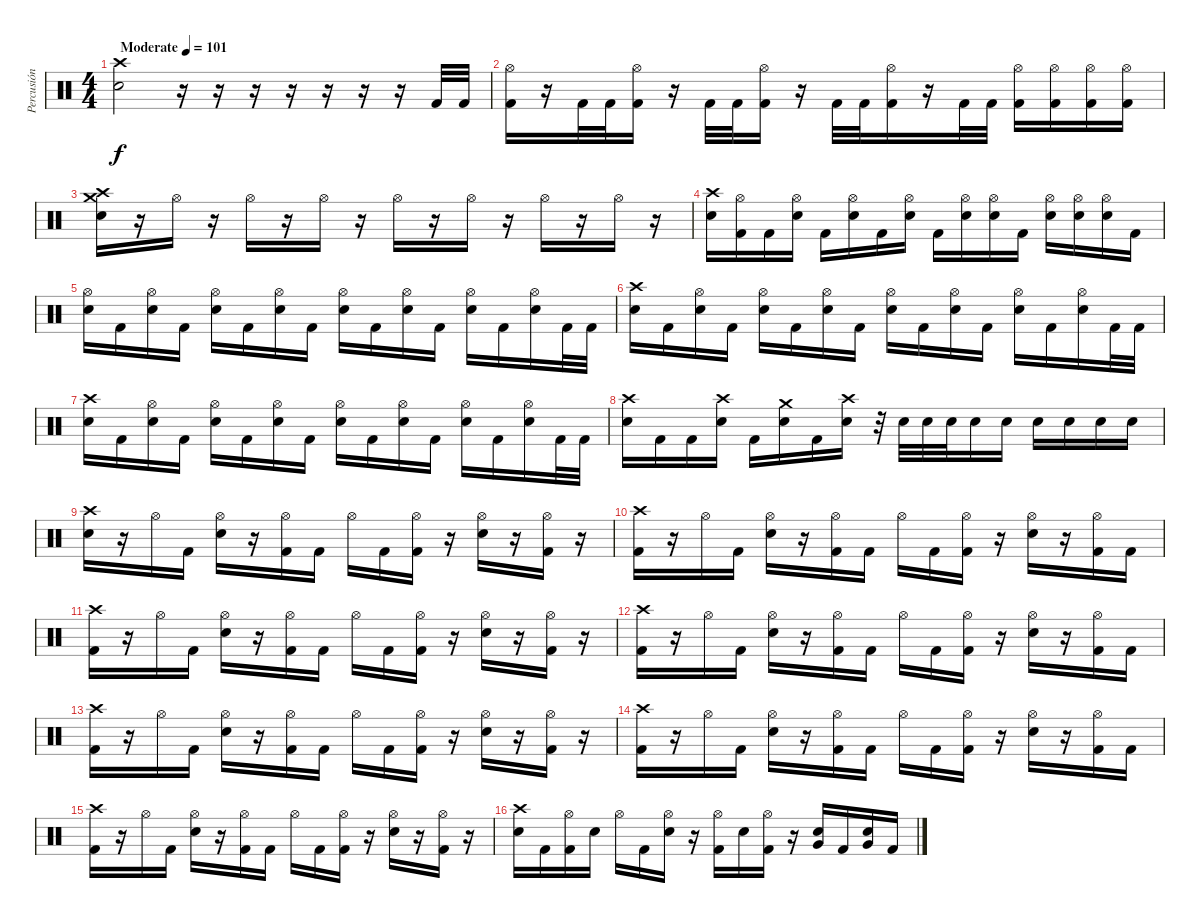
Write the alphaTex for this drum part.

\track ("Percusión" "Percusión") {instrument percussion}
\staff {score}
\articulation defaults
\ts (4 4)
\tempo (101 "Moderate")
\clef neutral
\ks c
("Electric Snare (hit)" "Crash high (hit)").2{dy f} r.16 r.16 r.16 r.16 r.16 r.16 r.16 "Kick (hit) 2".32 "Kick (hit) 2".32 |
("Kick (hit) 2" "Hi-Hat (open)").16 r.16 "Kick (hit) 2".32 "Kick (hit) 2".32 ("Hi-Hat (open)" "Kick (hit) 2").16 r.16 "Kick (hit) 2".32 "Kick (hit) 2".32 ("Kick (hit) 2" "Hi-Hat (open)").16 r.16 "Kick (hit) 2".32 "Kick (hit) 2".32 ("Kick (hit) 2" "Hi-Hat (open)").16 r.16 "Kick (hit) 2".32 "Kick (hit) 2".32 ("Kick (hit) 2" "Hi-Hat (open)").16 ("Hi-Hat (open)" "Kick (hit) 2").16 ("Hi-Hat (open)" "Kick (hit) 2").16 ("Hi-Hat (open)" "Kick (hit) 2").16 |
("Crash medium (hit)" "Crash high (hit)" "Electric Snare (hit)").16 r.16 "Hi-Hat (open)".16 r.16 "Hi-Hat (open)".16 r.16 "Hi-Hat (open)".16 r.16 "Hi-Hat (open)".16 r.16 "Hi-Hat (open)".16 r.16 "Hi-Hat (open)".16 r.16 "Hi-Hat (open)".16 r.16 |
("Crash high (hit)" "Electric Snare (hit)").16 ("Hi-Hat (open)" "Kick (hit) 2").16 "Kick (hit) 2".16 ("Hi-Hat (open)" "Electric Snare (hit)").16 "Kick (hit) 2".16 ("Hi-Hat (open)" "Electric Snare (hit)").16 "Kick (hit) 2".16 ("Hi-Hat (open)" "Electric Snare (hit)").16 "Kick (hit) 2".16 ("Hi-Hat (open)" "Electric Snare (hit)").16 ("Hi-Hat (open)" "Electric Snare (hit)").16 "Kick (hit) 2".16 ("Hi-Hat (open)" "Electric Snare (hit)").16 ("Hi-Hat (open)" "Electric Snare (hit)").16 ("Hi-Hat (open)" "Electric Snare (hit)").16 "Kick (hit) 2".16 |
("Hi-Hat (open)" "Electric Snare (hit)").16 "Kick (hit) 2".16 ("Hi-Hat (open)" "Electric Snare (hit)").16 "Kick (hit) 2".16 ("Hi-Hat (open)" "Electric Snare (hit)").16 "Kick (hit) 2".16 ("Hi-Hat (open)" "Electric Snare (hit)").16 "Kick (hit) 2".16 ("Hi-Hat (open)" "Electric Snare (hit)").16 "Kick (hit) 2".16 ("Hi-Hat (open)" "Electric Snare (hit)").16 "Kick (hit) 2".16 ("Hi-Hat (open)" "Electric Snare (hit)").16 "Kick (hit) 2".16 ("Hi-Hat (open)" "Electric Snare (hit)").16 "Kick (hit) 2".32 "Kick (hit) 2".32 |
("Crash high (hit)" "Electric Snare (hit)").16 "Kick (hit) 2".16 ("Hi-Hat (open)" "Electric Snare (hit)").16 "Kick (hit) 2".16 ("Hi-Hat (open)" "Electric Snare (hit)").16 "Kick (hit) 2".16 ("Hi-Hat (open)" "Electric Snare (hit)").16 "Kick (hit) 2".16 ("Hi-Hat (open)" "Electric Snare (hit)").16 "Kick (hit) 2".16 ("Hi-Hat (open)" "Electric Snare (hit)").16 "Kick (hit) 2".16 ("Hi-Hat (open)" "Electric Snare (hit)").16 "Kick (hit) 2".16 ("Hi-Hat (open)" "Electric Snare (hit)").16 "Kick (hit) 2".32 "Kick (hit) 2".32 |
("Crash high (hit)" "Electric Snare (hit)").16 "Kick (hit) 2".16 ("Hi-Hat (open)" "Electric Snare (hit)").16 "Kick (hit) 2".16 ("Hi-Hat (open)" "Electric Snare (hit)").16 "Kick (hit) 2".16 ("Hi-Hat (open)" "Electric Snare (hit)").16 "Kick (hit) 2".16 ("Hi-Hat (open)" "Electric Snare (hit)").16 "Kick (hit) 2".16 ("Hi-Hat (open)" "Electric Snare (hit)").16 "Kick (hit) 2".16 ("Hi-Hat (open)" "Electric Snare (hit)").16 "Kick (hit) 2".16 ("Hi-Hat (open)" "Electric Snare (hit)").16 "Kick (hit) 2".32 "Kick (hit) 2".32 |
("Crash high (hit)" "Electric Snare (hit)").16 "Kick (hit) 2".16 "Kick (hit) 2".16 ("Crash high (hit)" "Electric Snare (hit)").16 "Kick (hit) 2".16 ("Crash medium (hit)" "Electric Snare (hit)").16 "Kick (hit) 2".16 ("Crash high (hit)" "Electric Snare (hit)").16 r.32 "Electric Snare (hit)".32 "Electric Snare (hit)".32 "Electric Snare (hit)".32 "Electric Snare (hit)".16 "Electric Snare (hit)".16 "Electric Snare (hit)".16 "Electric Snare (hit)".16 "Electric Snare (hit)".16 "Electric Snare (hit)".16 |
("Crash high (hit)" "Electric Snare (hit)").16 r.16 "Hi-Hat (open)".16 "Kick (hit) 2".16 ("Hi-Hat (open)" "Electric Snare (hit)").16 r.16 ("Hi-Hat (open)" "Kick (hit) 2").16 "Kick (hit) 2".16 "Hi-Hat (open)".16 "Kick (hit) 2".16 ("Hi-Hat (open)" "Kick (hit) 2").16 r.16 ("Hi-Hat (open)" "Electric Snare (hit)").16 r.16 ("Hi-Hat (open)" "Kick (hit) 2").16 r.16 |
("Crash high (hit)" "Kick (hit) 2").16 r.16 "Hi-Hat (open)".16 "Kick (hit) 2".16 ("Hi-Hat (open)" "Electric Snare (hit)").16 r.16 ("Hi-Hat (open)" "Kick (hit) 2").16 "Kick (hit) 2".16 "Hi-Hat (open)".16 "Kick (hit) 2".16 ("Hi-Hat (open)" "Kick (hit) 2").16 r.16 ("Hi-Hat (open)" "Electric Snare (hit)").16 r.16 ("Hi-Hat (open)" "Kick (hit) 2").16 "Kick (hit) 2".16 |
("Crash high (hit)" "Kick (hit) 2").16 r.16 "Hi-Hat (open)".16 "Kick (hit) 2".16 ("Hi-Hat (open)" "Electric Snare (hit)").16 r.16 ("Hi-Hat (open)" "Kick (hit) 2").16 "Kick (hit) 2".16 "Hi-Hat (open)".16 "Kick (hit) 2".16 ("Hi-Hat (open)" "Kick (hit) 2").16 r.16 ("Hi-Hat (open)" "Electric Snare (hit)").16 r.16 ("Hi-Hat (open)" "Kick (hit) 2").16 r.16 |
("Crash high (hit)" "Kick (hit) 2").16 r.16 "Hi-Hat (open)".16 "Kick (hit) 2".16 ("Hi-Hat (open)" "Electric Snare (hit)").16 r.16 ("Hi-Hat (open)" "Kick (hit) 2").16 "Kick (hit) 2".16 "Hi-Hat (open)".16 "Kick (hit) 2".16 ("Hi-Hat (open)" "Kick (hit) 2").16 r.16 ("Hi-Hat (open)" "Electric Snare (hit)").16 r.16 ("Hi-Hat (open)" "Kick (hit) 2").16 "Kick (hit) 2".16 |
("Crash high (hit)" "Kick (hit) 2").16 r.16 "Hi-Hat (open)".16 "Kick (hit) 2".16 ("Hi-Hat (open)" "Electric Snare (hit)").16 r.16 ("Hi-Hat (open)" "Kick (hit) 2").16 "Kick (hit) 2".16 "Hi-Hat (open)".16 "Kick (hit) 2".16 ("Hi-Hat (open)" "Kick (hit) 2").16 r.16 ("Hi-Hat (open)" "Electric Snare (hit)").16 r.16 ("Hi-Hat (open)" "Kick (hit) 2").16 r.16 |
("Crash high (hit)" "Kick (hit) 2").16 r.16 "Hi-Hat (open)".16 "Kick (hit) 2".16 ("Hi-Hat (open)" "Electric Snare (hit)").16 r.16 ("Hi-Hat (open)" "Kick (hit) 2").16 "Kick (hit) 2".16 "Hi-Hat (open)".16 "Kick (hit) 2".16 ("Hi-Hat (open)" "Kick (hit) 2").16 r.16 ("Hi-Hat (open)" "Electric Snare (hit)").16 r.16 ("Hi-Hat (open)" "Kick (hit) 2").16 "Kick (hit) 2".16 |
("Crash high (hit)" "Kick (hit) 2").16 r.16 "Hi-Hat (open)".16 "Kick (hit) 2".16 ("Hi-Hat (open)" "Electric Snare (hit)").16 r.16 ("Hi-Hat (open)" "Kick (hit) 2").16 "Kick (hit) 2".16 "Hi-Hat (open)".16 "Kick (hit) 2".16 ("Hi-Hat (open)" "Kick (hit) 2").16 r.16 ("Hi-Hat (open)" "Electric Snare (hit)").16 r.16 ("Hi-Hat (open)" "Kick (hit) 2").16 r.16 |
("Crash high (hit)" "Electric Snare (hit)").16 "Kick (hit) 2".16 ("Hi-Hat (open)" "Kick (hit) 2").16 "Electric Snare (hit)".16 "Hi-Hat (open)".16 "Kick (hit) 2".16 ("Hi-Hat (open)" "Electric Snare (hit)").16 r.16 ("Hi-Hat (open)" "Kick (hit) 2").16 "Electric Snare (hit)".16 ("Hi-Hat (open)" "Kick (hit) 2").16 r.16 ("Very Low Tom (hit)" "Electric Snare (hit)").16 "Kick (hit) 2".16 ("Very Low Tom (hit)" "Electric Snare (hit)").16 "Kick (hit) 2".16
